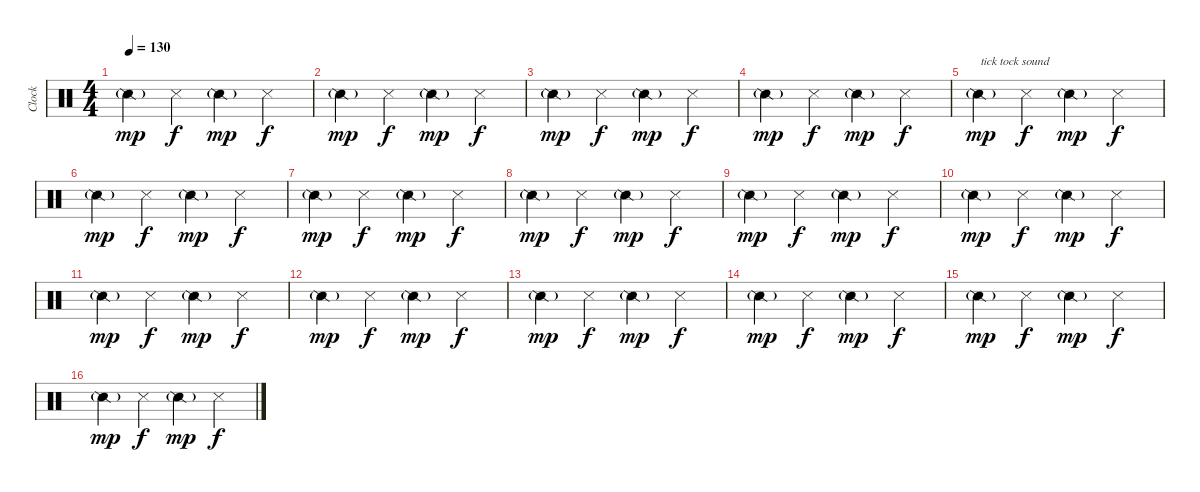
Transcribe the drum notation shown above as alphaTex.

\track ("Clock" "Clock") {instrument percussion}
\staff {score}
\articulation defaults
\ts (4 4)
\tempo 130
\clef neutral
\ks c "Snare (side stick) 2"{g}.4{dy mp} "Metronome (hit)".4{dy f} "Snare (side stick) 2"{g}.4{dy mp} "Metronome (hit)".4{dy f}
|
"Snare (side stick) 2"{g}.4{dy mp} "Metronome (hit)".4{dy f} "Snare (side stick) 2"{g}.4{dy mp} "Metronome (hit)".4{dy f} |
"Snare (side stick) 2"{g}.4{dy mp} "Metronome (hit)".4{dy f} "Snare (side stick) 2"{g}.4{dy mp} "Metronome (hit)".4{dy f} |
"Snare (side stick) 2"{g}.4{dy mp} "Metronome (hit)".4{dy f} "Snare (side stick) 2"{g}.4{dy mp} "Metronome (hit)".4{dy f} |
"Snare (side stick) 2"{g}.4{txt "tick tock sound" dy mp} "Metronome (hit)".4{dy f} "Snare (side stick) 2"{g}.4{dy mp} "Metronome (hit)".4{dy f} |
"Snare (side stick) 2"{g}.4{dy mp} "Metronome (hit)".4{dy f} "Snare (side stick) 2"{g}.4{dy mp} "Metronome (hit)".4{dy f} |
"Snare (side stick) 2"{g}.4{dy mp} "Metronome (hit)".4{dy f} "Snare (side stick) 2"{g}.4{dy mp} "Metronome (hit)".4{dy f} |
"Snare (side stick) 2"{g}.4{dy mp} "Metronome (hit)".4{dy f} "Snare (side stick) 2"{g}.4{dy mp} "Metronome (hit)".4{dy f} |
"Snare (side stick) 2"{g}.4{dy mp} "Metronome (hit)".4{dy f} "Snare (side stick) 2"{g}.4{dy mp} "Metronome (hit)".4{dy f} |
"Snare (side stick) 2"{g}.4{dy mp} "Metronome (hit)".4{dy f} "Snare (side stick) 2"{g}.4{dy mp} "Metronome (hit)".4{dy f} |
"Snare (side stick) 2"{g}.4{dy mp} "Metronome (hit)".4{dy f} "Snare (side stick) 2"{g}.4{dy mp} "Metronome (hit)".4{dy f} |
"Snare (side stick) 2"{g}.4{dy mp} "Metronome (hit)".4{dy f} "Snare (side stick) 2"{g}.4{dy mp} "Metronome (hit)".4{dy f} |
"Snare (side stick) 2"{g}.4{dy mp} "Metronome (hit)".4{dy f} "Snare (side stick) 2"{g}.4{dy mp} "Metronome (hit)".4{dy f} |
"Snare (side stick) 2"{g}.4{dy mp} "Metronome (hit)".4{dy f} "Snare (side stick) 2"{g}.4{dy mp} "Metronome (hit)".4{dy f} |
"Snare (side stick) 2"{g}.4{dy mp} "Metronome (hit)".4{dy f} "Snare (side stick) 2"{g}.4{dy mp} "Metronome (hit)".4{dy f} |
"Snare (side stick) 2"{g}.4{dy mp} "Metronome (hit)".4{dy f} "Snare (side stick) 2"{g}.4{dy mp} "Metronome (hit)".4{dy f}
